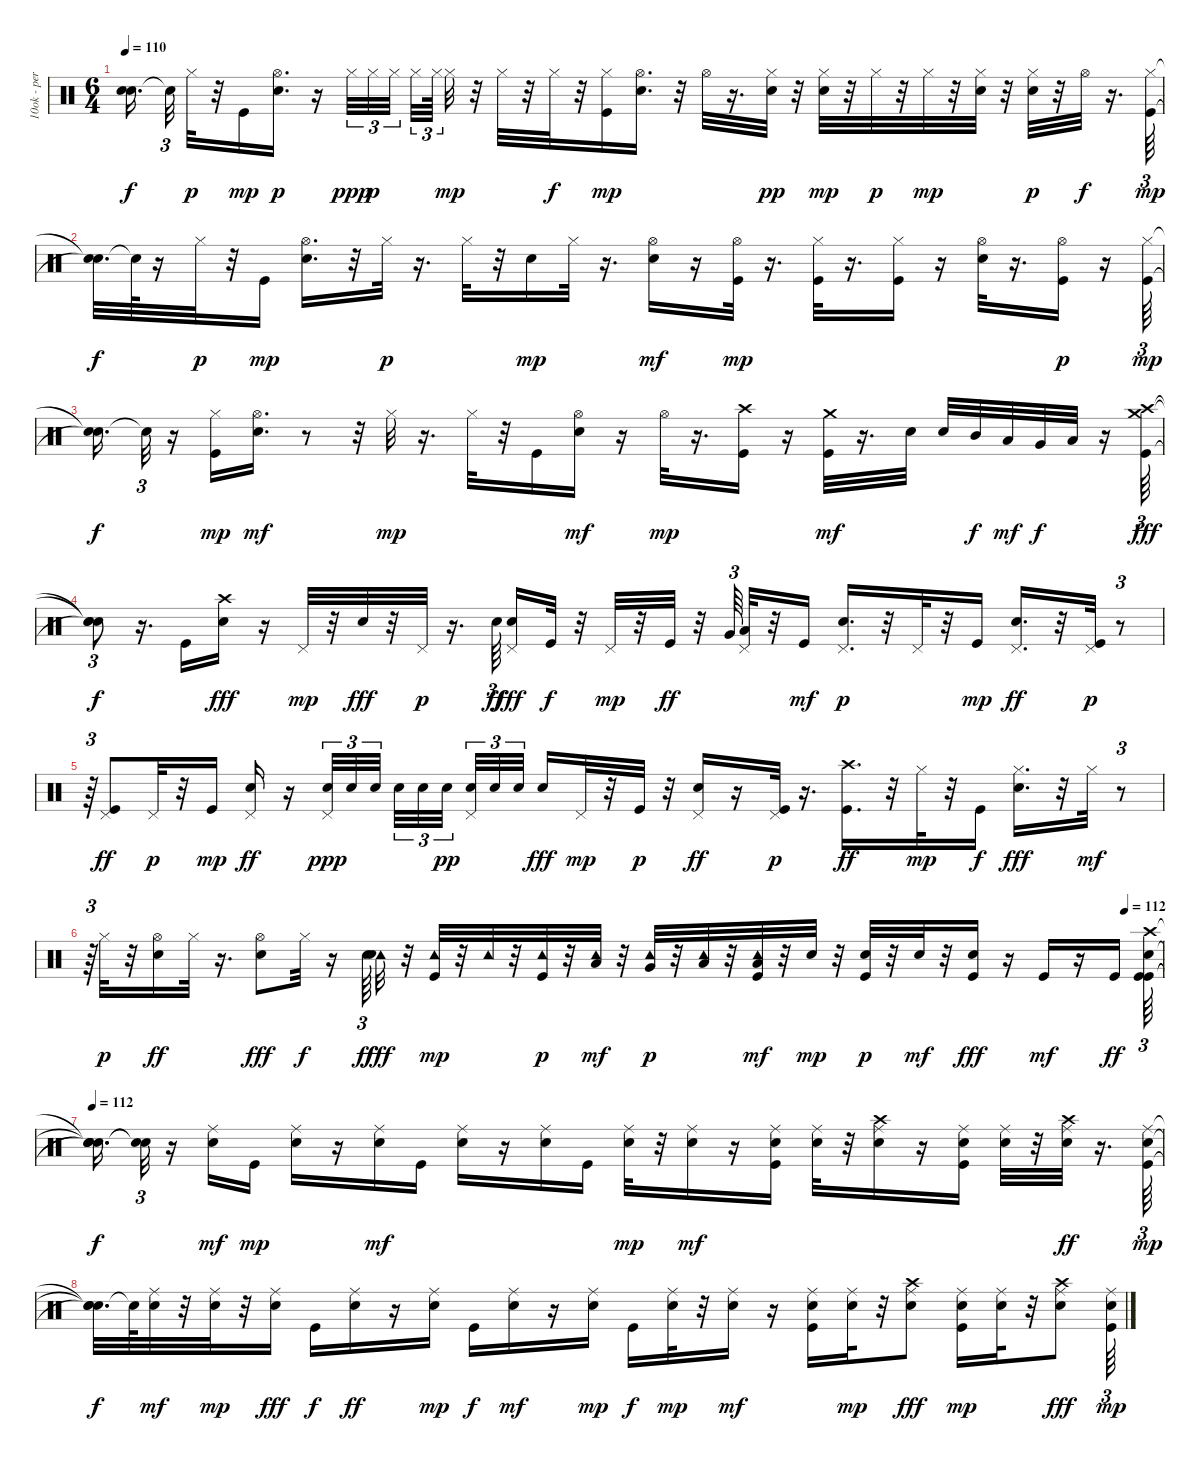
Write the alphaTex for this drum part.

\track ("10ok - percussioni" "10ok - per") {instrument percussion}
\staff {score}
\articulation defaults
\ts (6 4)
\tempo 110
\clef neutral
\ks c
("Snare (hit)"{t} "Snare (hit)"{t}).16{d dy f beam splitsecondary} "Snare (hit)"{t}.32{tu (3 2)} "Hi-Hat (closed)".32{dy p} r.32 "Kick (hit)".16{dy mp} ("Snare (hit) 2" "Hi-Hat (open)").16{d dy p} r.16 "Hi-Hat (closed)".32{tu (3 2) dy ppp} "Hi-Hat (closed)".32{tu (3 2) dy p} "Hi-Hat (closed)".32{tu (3 2) beam splitsecondary} "Hi-Hat (closed)".32{tu (3 2)} "Hi-Hat (closed)".64{tu (3 2) beam splitsecondary} "Hi-Hat (closed)".32{dy mp} r.32 "Hi-Hat (closed)".32 r.32 "Hi-Hat (closed)".32{dy f} r.32 ("Hi-Hat (closed)" "Kick (hit)").16{dy mp} ("Snare (hit) 2" "Hi-Hat (open)").16{d} r.32 "Hi-Hat (open)".32 r.16{d} ("Hi-Hat (closed)" "Snare (hit) 2").32{dy pp} r.32 ("Snare (hit) 2" "Hi-Hat (closed)").32{dy mp} r.32 "Hi-Hat (closed)".32{dy p} r.32 "Hi-Hat (closed)".32{dy mp} r.32 ("Snare (hit) 2" "Hi-Hat (closed)").32 r.32 ("Snare (hit) 2" "Hi-Hat (closed)").32{dy p} r.32 "Hi-Hat (open)".32{dy f} r.16{d} ("Hi-Hat (closed)" "Kick (hit)").64{tu (3 2) dy mp} |
("Snare (hit)"{t} "Snare (hit)"{t}).32{d dy f} "Snare (hit)"{t}.64 r.16 "Hi-Hat (closed)".32{dy p} r.32 "Kick (hit)".16{dy mp} ("Hi-Hat (open)" "Snare (hit) 2").16{d} r.32 "Hi-Hat (closed)".32{dy p} r.16{d} "Hi-Hat (closed)".32 r.32 "Snare (hit) 2".16{dy mp} "Hi-Hat (closed)".32 r.16{d} ("Hi-Hat (open)" "Snare (hit) 2").16{dy mf} r.16 ("Hi-Hat (open)" "Kick (hit)").32{dy mp} r.16{d} ("Hi-Hat (closed)" "Kick (hit)").32 r.16{d} ("Hi-Hat (closed)" "Kick (hit)").16 r.16 ("Hi-Hat (open)" "Snare (hit) 2").32 r.16{d} ("Hi-Hat (open)" "Kick (hit)").16{dy p} r.16 ("Hi-Hat (closed)" "Kick (hit)").64{tu (3 2) dy mp} |
("Snare (hit)"{t} "Snare (hit)"{t}).16{d dy f} "Snare (hit)"{t}.32{tu (3 2)} r.16 ("Hi-Hat (closed)" "Kick (hit)").16{dy mp} ("Hi-Hat (open)" "Snare (hit) 2").16{d dy mf} r.8 r.32 "Hi-Hat (closed)".32{dy mp} r.16{d} "Hi-Hat (closed)".32 r.32 "Kick (hit)".16 ("Hi-Hat (open)" "Snare (hit) 2").16{dy mf} r.16 "Hi-Hat (open)".32{dy mp} r.16{d} ("Kick (hit)" "Crash high (hit)").16 r.16 ("Crash medium (hit)" "Kick (hit)").32{dy mf} r.16{d} "Snare (hit) 2".32 "Snare (hit) 2".32 "Mid Tom (hit)".32{dy f} "Low Tom (hit)".32{dy mf} "Very Low Tom (hit)".32{dy f} "Low Floor Tom (hit)".32 r.16 ("Kick (hit)" "Crash medium (hit)" "Crash high (hit)").64{tu (3 2) dy fff} |
("Snare (hit)"{t} "Snare (hit)"{t} "Snare (hit)"{t}).8{tu (3 2) dy f} r.16{d} "Kick (hit)".16 ("Snare (hit) 2" "Crash high (hit)").16{dy fff} r.16 "Pedal Hi-Hat (hit)".32{dy mp} r.32 "Snare (hit) 2".32{dy fff} r.32 "Pedal Hi-Hat (hit)".32{dy p} r.16{d} "Snare (hit) 2".64{tu (3 2) dy ff beam splitsecondary} ("Pedal Hi-Hat (hit)" "Snare (hit) 2").16{dy fff} "Kick (hit)".32{dy f} r.32 "Pedal Hi-Hat (hit)".32{dy mp} r.32 "Kick (hit)".32{dy ff} r.32 "Very Low Tom (hit)".64{tu (3 2)} ("Pedal Hi-Hat (hit)" "Low Tom (hit)").32 r.32 "Kick (hit)".16{dy mf} ("Pedal Hi-Hat (hit)" "Snare (hit) 2").16{d dy p} r.32 "Pedal Hi-Hat (hit)".32 r.32 "Kick (hit)".16{dy mp} ("Pedal Hi-Hat (hit)" "Snare (hit) 2").16{d dy ff} r.32 ("Pedal Hi-Hat (hit)" "Kick (hit)").32{dy p} r.8{tu (3 2)} |
r.64{tu (3 2)} ("Pedal Hi-Hat (hit)" "Kick (hit)").8{dy ff} "Pedal Hi-Hat (hit)".32{dy p} r.32 "Kick (hit)".16{dy mp} ("Pedal Hi-Hat (hit)" "Snare (hit) 2").16{dy ff} r.16 ("Pedal Hi-Hat (hit)" "Snare (hit) 2").32{tu (3 2) dy ppp} "Snare (hit) 2".32{tu (3 2)} "Snare (hit) 2".32{tu (3 2) beam splitsecondary} "Snare (hit) 2".32{tu (3 2)} "Snare (hit) 2".32{tu (3 2)} "Snare (hit) 2".32{tu (3 2) dy pp beam splitsecondary} ("Pedal Hi-Hat (hit)" "Snare (hit) 2").32{tu (3 2)} "Snare (hit) 2".32{tu (3 2)} "Snare (hit) 2".32{tu (3 2) beam splitsecondary} "Snare (hit) 2".16{dy fff} "Pedal Hi-Hat (hit)".32{dy mp} r.32 "Kick (hit)".32{dy p} r.32 ("Pedal Hi-Hat (hit)" "Snare (hit) 2").16{dy ff} r.16 ("Pedal Hi-Hat (hit)" "Kick (hit)").32{dy p} r.16{d} ("Crash high (hit)" "Kick (hit)").16{d dy ff} r.32 "Hi-Hat (closed)".32{dy mp} r.32 "Kick (hit)".16{dy f} ("Hi-Hat (closed)" "Snare (hit) 2").16{d dy fff} r.32 "Hi-Hat (closed)".32{dy mf} r.8{tu (3 2)} |
\tempo (112 0.9652777777777778)
r.64{tu (3 2)} "Hi-Hat (closed)".32{dy p} r.32 ("Hi-Hat (open)" "Snare (hit) 2").16{dy ff} "Hi-Hat (closed)".32 r.16{d} ("Hi-Hat (open)" "Snare (hit) 2").8{dy fff} "Hi-Hat (closed)".32{dy f} r.16 "Snare (hit) 2".64{tu (3 2) dy ff} ("Tambourine (hit)" "Snare (hit) 2").32{dy fff} r.32 ("Tambourine (hit)" "Kick (hit)").32{dy mp} r.32 "Tambourine (hit)".32 r.32 ("Tambourine (hit)" "Kick (hit)").32{dy p} r.32 ("Tambourine (hit)" "Low Tom (hit)").32{dy mf} r.32 ("Tambourine (hit)" "Very Low Tom (hit)").32{dy p} r.32 ("Tambourine (hit)" "Low Floor Tom (hit)").32 r.32 ("Tambourine (hit)" "Low Floor Tom (hit)" "Kick (hit)").32{dy mf} r.32 "Snare (hit) 2".32{dy mp} r.32 ("Kick (hit)" "Snare (hit) 2").32{dy p} r.32 "Snare (hit) 2".32{dy mf} r.32 ("Kick (hit)" "Snare (hit) 2").16{dy fff} r.16 "Kick (hit)".16{dy mf} r.16 "Kick (hit)".16{dy ff} ("Kick (hit)" "Kick (hit)" "Crash high (hit)" "Snare (hit) 2").64{tu (3 2)} |
\tempo 112
("Snare (hit)"{t} "Snare (hit)"{t} "Snare (hit)"{t} "Snare (hit)"{t}).16{d dy f} ("Snare (hit)"{t} "Snare (hit)"{t}).32{tu (3 2)} r.16 ("Ride (middle)" "Snare (hit) 2").16{dy mf} "Kick (hit)".16{dy mp} ("Ride (middle)" "Snare (hit) 2").16 r.16 ("Ride (middle)" "Snare (hit) 2").16{dy mf} "Kick (hit)".16 ("Ride (middle)" "Snare (hit) 2").16 r.16 ("Ride (middle)" "Snare (hit) 2").16 "Kick (hit)".16 ("Ride (middle)" "Snare (hit) 2").32{dy mp} r.32 ("Ride (middle)" "Snare (hit) 2").16{dy mf} r.16 ("Kick (hit)" "Ride (middle)" "Snare (hit) 2").16 ("Ride (middle)" "Snare (hit) 2").32 r.32 ("Crash high (hit)" "Ride (middle)" "Snare (hit) 2").16 r.16 ("Kick (hit)" "Ride (middle)" "Snare (hit) 2").16 ("Ride (middle)" "Snare (hit) 2").32 r.32 ("Crash high (hit)" "Ride (middle)" "Snare (hit) 2").32{dy ff} r.16{d} ("Snare (hit) 2" "Ride (middle)" "Kick (hit)").64{tu (3 2) dy mp} |
("Snare (hit)"{t} "Snare (hit)"{t} "Snare (hit)"{t}).32{d dy f} "Snare (hit)"{t}.64 ("Snare (hit) 2" "Ride (middle)").32{dy mf} r.32 ("Snare (hit) 2" "Ride (middle)").32{dy mp} r.32 ("Snare (hit) 2" "Ride (middle)").16{dy fff} "Kick (hit)".16{dy f} ("Snare (hit) 2" "Ride (middle)").16{dy ff} r.16 ("Snare (hit) 2" "Ride (middle)").16{dy mp} "Kick (hit)".16{dy f} ("Snare (hit) 2" "Ride (middle)").16{dy mf} r.16 ("Snare (hit) 2" "Ride (middle)").16{dy mp} "Kick (hit)".16{dy f} ("Snare (hit) 2" "Ride (middle)").32{dy mp} r.32 ("Snare (hit) 2" "Ride (middle)").16{dy mf} r.16 ("Snare (hit) 2" "Ride (middle)" "Kick (hit)").16 ("Snare (hit) 2" "Ride (middle)").32{dy mp} r.32 ("Snare (hit) 2" "Crash high (hit)" "Ride (middle)").8{dy fff} ("Snare (hit) 2" "Ride (middle)" "Kick (hit)").16{dy mp} ("Snare (hit) 2" "Ride (middle)").32 r.32 ("Snare (hit) 2" "Crash high (hit)" "Ride (middle)").8{dy fff} ("Ride (middle)" "Kick (hit)" "Snare (hit) 2").64{tu (3 2) dy mp}
